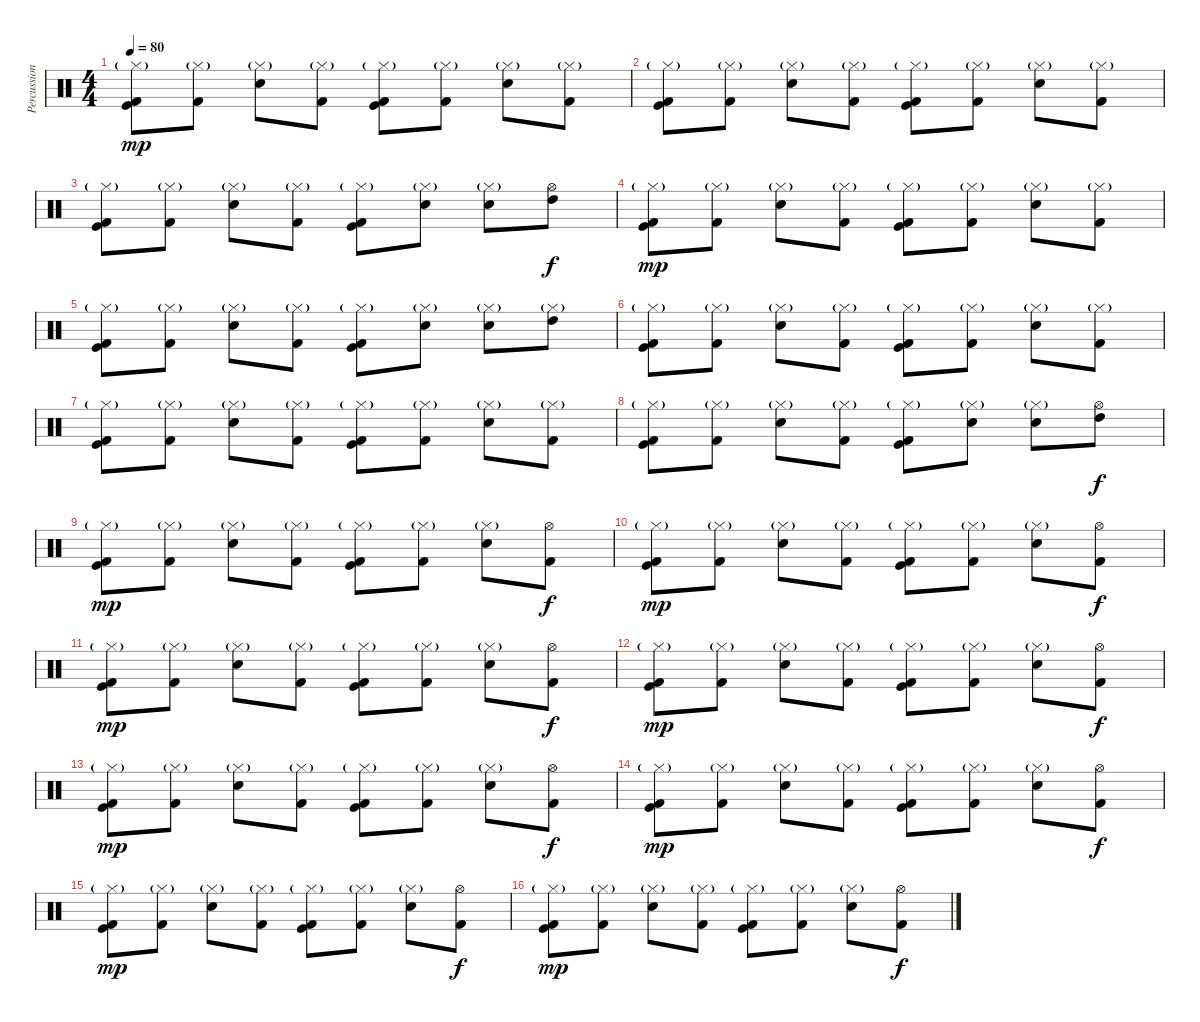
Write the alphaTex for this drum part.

\track ("Percussion" "Percussion") {instrument percussion}
\staff {score}
\articulation defaults
\ts (4 4)
\tempo 80
\clef neutral
\ks c
("Hi-Hat (closed)"{g} "Kick (hit) 2" "Kick (hit)").8{dy mp} ("Hi-Hat (closed)"{g} "Kick (hit) 2").8 ("Hi-Hat (closed)"{g} "Electric Snare (hit)").8 ("Hi-Hat (closed)"{g} "Kick (hit) 2").8 ("Hi-Hat (closed)"{g} "Kick (hit) 2" "Kick (hit)").8 ("Hi-Hat (closed)"{g} "Kick (hit) 2").8 ("Hi-Hat (closed)"{g} "Electric Snare (hit)").8 ("Hi-Hat (closed)"{g} "Kick (hit) 2").8 |
("Hi-Hat (closed)"{g} "Kick (hit) 2" "Kick (hit)").8 ("Hi-Hat (closed)"{g} "Kick (hit) 2").8 ("Hi-Hat (closed)"{g} "Electric Snare (hit)").8 ("Hi-Hat (closed)"{g} "Kick (hit) 2").8 ("Hi-Hat (closed)"{g} "Kick (hit) 2" "Kick (hit)").8 ("Hi-Hat (closed)"{g} "Kick (hit) 2").8 ("Hi-Hat (closed)"{g} "Electric Snare (hit)").8 ("Hi-Hat (closed)"{g} "Kick (hit) 2").8 |
("Hi-Hat (closed)"{g} "Kick (hit) 2" "Kick (hit)").8 ("Hi-Hat (closed)"{g} "Kick (hit) 2").8 ("Hi-Hat (closed)"{g} "Electric Snare (hit)").8 ("Hi-Hat (closed)"{g} "Kick (hit) 2").8 ("Hi-Hat (closed)"{g} "Kick (hit) 2" "Kick (hit)").8 ("Hi-Hat (closed)"{g} "Electric Snare (hit)").8 ("Hi-Hat (closed)"{g} "Snare (hit) 2").8 ("Hi-Hat (open)" "High Tom (hit)").8{dy f} |
("Hi-Hat (closed)"{g} "Kick (hit) 2" "Kick (hit)").8{dy mp} ("Hi-Hat (closed)"{g} "Kick (hit) 2").8 ("Hi-Hat (closed)"{g} "Electric Snare (hit)").8 ("Hi-Hat (closed)"{g} "Kick (hit) 2").8 ("Hi-Hat (closed)"{g} "Kick (hit) 2" "Kick (hit)").8 ("Hi-Hat (closed)"{g} "Kick (hit) 2").8 ("Hi-Hat (closed)"{g} "Electric Snare (hit)").8 ("Hi-Hat (closed)"{g} "Kick (hit) 2").8 |
("Hi-Hat (closed)"{g} "Kick (hit) 2" "Kick (hit)").8 ("Hi-Hat (closed)"{g} "Kick (hit) 2").8 ("Hi-Hat (closed)"{g} "Electric Snare (hit)").8 ("Hi-Hat (closed)"{g} "Kick (hit) 2").8 ("Hi-Hat (closed)"{g} "Kick (hit) 2" "Kick (hit)").8 ("Hi-Hat (closed)"{g} "Electric Snare (hit)").8 ("Hi-Hat (closed)"{g} "Snare (hit) 2").8 ("Hi-Hat (closed)"{g} "High Tom (hit)").8 |
("Hi-Hat (closed)"{g} "Kick (hit) 2" "Kick (hit)").8 ("Hi-Hat (closed)"{g} "Kick (hit) 2").8 ("Hi-Hat (closed)"{g} "Electric Snare (hit)").8 ("Hi-Hat (closed)"{g} "Kick (hit) 2").8 ("Hi-Hat (closed)"{g} "Kick (hit) 2" "Kick (hit)").8 ("Hi-Hat (closed)"{g} "Kick (hit) 2").8 ("Hi-Hat (closed)"{g} "Electric Snare (hit)").8 ("Hi-Hat (closed)"{g} "Kick (hit) 2").8 |
("Hi-Hat (closed)"{g} "Kick (hit) 2" "Kick (hit)").8 ("Hi-Hat (closed)"{g} "Kick (hit) 2").8 ("Hi-Hat (closed)"{g} "Electric Snare (hit)").8 ("Hi-Hat (closed)"{g} "Kick (hit) 2").8 ("Hi-Hat (closed)"{g} "Kick (hit) 2" "Kick (hit)").8 ("Hi-Hat (closed)"{g} "Kick (hit) 2").8 ("Hi-Hat (closed)"{g} "Electric Snare (hit)").8 ("Hi-Hat (closed)"{g} "Kick (hit) 2").8 |
("Hi-Hat (closed)"{g} "Kick (hit) 2" "Kick (hit)").8 ("Hi-Hat (closed)"{g} "Kick (hit) 2").8 ("Hi-Hat (closed)"{g} "Electric Snare (hit)").8 ("Hi-Hat (closed)"{g} "Kick (hit) 2").8 ("Hi-Hat (closed)"{g} "Kick (hit) 2" "Kick (hit)").8 ("Hi-Hat (closed)"{g} "Electric Snare (hit)").8 ("Hi-Hat (closed)"{g} "Snare (hit) 2").8 ("Hi-Hat (open)" "High Tom (hit)").8{dy f} |
("Hi-Hat (closed)"{g} "Kick (hit) 2" "Kick (hit)").8{dy mp} ("Hi-Hat (closed)"{g} "Kick (hit) 2").8 ("Hi-Hat (closed)"{g} "Electric Snare (hit)").8 ("Hi-Hat (closed)"{g} "Kick (hit) 2").8 ("Hi-Hat (closed)"{g} "Kick (hit) 2" "Kick (hit)").8 ("Hi-Hat (closed)"{g} "Kick (hit) 2").8 ("Hi-Hat (closed)"{g} "Electric Snare (hit)").8 ("Hi-Hat (open)" "Kick (hit) 2").8{dy f} |
("Hi-Hat (closed)"{g} "Kick (hit) 2" "Kick (hit)").8{dy mp} ("Hi-Hat (closed)"{g} "Kick (hit) 2").8 ("Hi-Hat (closed)"{g} "Electric Snare (hit)").8 ("Hi-Hat (closed)"{g} "Kick (hit) 2").8 ("Hi-Hat (closed)"{g} "Kick (hit) 2" "Kick (hit)").8 ("Hi-Hat (closed)"{g} "Kick (hit) 2").8 ("Hi-Hat (closed)"{g} "Electric Snare (hit)").8 ("Hi-Hat (open)" "Kick (hit) 2").8{dy f} |
("Hi-Hat (closed)"{g} "Kick (hit) 2" "Kick (hit)").8{dy mp} ("Hi-Hat (closed)"{g} "Kick (hit) 2").8 ("Hi-Hat (closed)"{g} "Electric Snare (hit)").8 ("Hi-Hat (closed)"{g} "Kick (hit) 2").8 ("Hi-Hat (closed)"{g} "Kick (hit) 2" "Kick (hit)").8 ("Hi-Hat (closed)"{g} "Kick (hit) 2").8 ("Hi-Hat (closed)"{g} "Electric Snare (hit)").8 ("Hi-Hat (open)" "Kick (hit) 2").8{dy f} |
("Hi-Hat (closed)"{g} "Kick (hit) 2" "Kick (hit)").8{dy mp} ("Hi-Hat (closed)"{g} "Kick (hit) 2").8 ("Hi-Hat (closed)"{g} "Electric Snare (hit)").8 ("Hi-Hat (closed)"{g} "Kick (hit) 2").8 ("Hi-Hat (closed)"{g} "Kick (hit) 2" "Kick (hit)").8 ("Hi-Hat (closed)"{g} "Kick (hit) 2").8 ("Hi-Hat (closed)"{g} "Electric Snare (hit)").8 ("Hi-Hat (open)" "Kick (hit) 2").8{dy f} |
("Hi-Hat (closed)"{g} "Kick (hit) 2" "Kick (hit)").8{dy mp} ("Hi-Hat (closed)"{g} "Kick (hit) 2").8 ("Hi-Hat (closed)"{g} "Electric Snare (hit)").8 ("Hi-Hat (closed)"{g} "Kick (hit) 2").8 ("Hi-Hat (closed)"{g} "Kick (hit) 2" "Kick (hit)").8 ("Hi-Hat (closed)"{g} "Kick (hit) 2").8 ("Hi-Hat (closed)"{g} "Electric Snare (hit)").8 ("Hi-Hat (open)" "Kick (hit) 2").8{dy f} |
("Hi-Hat (closed)"{g} "Kick (hit) 2" "Kick (hit)").8{dy mp} ("Hi-Hat (closed)"{g} "Kick (hit) 2").8 ("Hi-Hat (closed)"{g} "Electric Snare (hit)").8 ("Hi-Hat (closed)"{g} "Kick (hit) 2").8 ("Hi-Hat (closed)"{g} "Kick (hit) 2" "Kick (hit)").8 ("Hi-Hat (closed)"{g} "Kick (hit) 2").8 ("Hi-Hat (closed)"{g} "Electric Snare (hit)").8 ("Hi-Hat (open)" "Kick (hit) 2").8{dy f} |
("Hi-Hat (closed)"{g} "Kick (hit) 2" "Kick (hit)").8{dy mp} ("Hi-Hat (closed)"{g} "Kick (hit) 2").8 ("Hi-Hat (closed)"{g} "Electric Snare (hit)").8 ("Hi-Hat (closed)"{g} "Kick (hit) 2").8 ("Hi-Hat (closed)"{g} "Kick (hit) 2" "Kick (hit)").8 ("Hi-Hat (closed)"{g} "Kick (hit) 2").8 ("Hi-Hat (closed)"{g} "Electric Snare (hit)").8 ("Hi-Hat (open)" "Kick (hit) 2").8{dy f} |
("Hi-Hat (closed)"{g} "Kick (hit) 2" "Kick (hit)").8{dy mp} ("Hi-Hat (closed)"{g} "Kick (hit) 2").8 ("Hi-Hat (closed)"{g} "Electric Snare (hit)").8 ("Hi-Hat (closed)"{g} "Kick (hit) 2").8 ("Hi-Hat (closed)"{g} "Kick (hit) 2" "Kick (hit)").8 ("Hi-Hat (closed)"{g} "Kick (hit) 2").8 ("Hi-Hat (closed)"{g} "Electric Snare (hit)").8 ("Hi-Hat (open)" "Kick (hit) 2").8{dy f}
